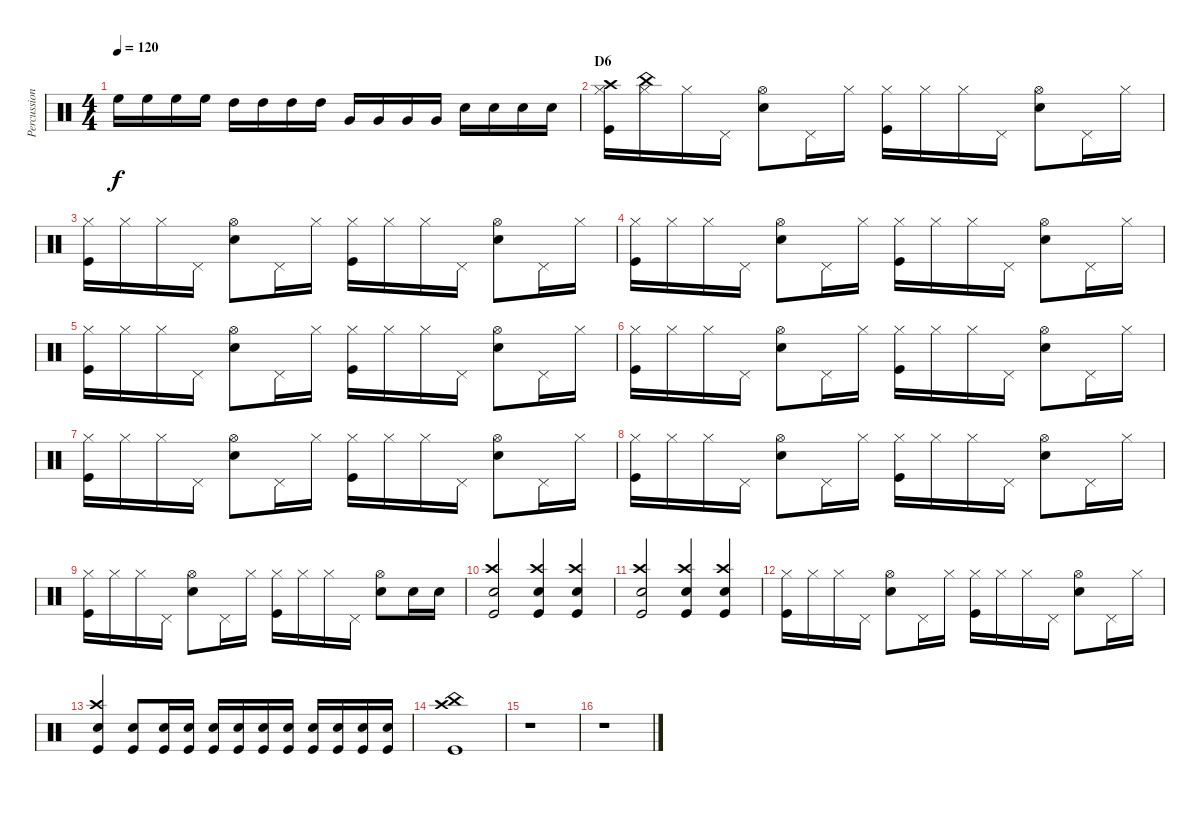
\track ("Percussions" "Percussion") {instrument percussion}
\staff {score}
\articulation defaults
\ts (4 4)
\tempo 120
\clef neutral
\ks c "High Floor Tom (hit)".16{dy f} "High Floor Tom (hit)".16 "High Floor Tom (hit)".16 "High Floor Tom (hit)".16 "High Tom (hit)".16 "High Tom (hit)".16 "High Tom (hit)".16 "High Tom (hit)".16 "Very Low Tom (hit)".16 "Very Low Tom (hit)".16 "Very Low Tom (hit)".16 "Very Low Tom (hit)".16 "Snare (hit) 2".16 "Snare (hit) 2".16 "Snare (hit) 2".16 "Snare (hit) 2".16
|
\section ("" "D6")
("Hi-Hat (closed)" "Crash high (hit)" "Kick (hit)").16 ("Hi-Hat (closed)" "China (hit)").16 "Hi-Hat (closed)".16 "Pedal Hi-Hat (hit)".16 ("Hi-Hat (open)" "Snare (hit) 2").8 "Pedal Hi-Hat (hit)".16 "Hi-Hat (closed)".16 ("Hi-Hat (closed)" "Kick (hit)").16 "Hi-Hat (closed)".16 "Hi-Hat (closed)".16 "Pedal Hi-Hat (hit)".16 ("Hi-Hat (open)" "Snare (hit) 2").8 "Pedal Hi-Hat (hit)".16 "Hi-Hat (closed)".16 |
("Hi-Hat (closed)" "Kick (hit)").16 "Hi-Hat (closed)".16 "Hi-Hat (closed)".16 "Pedal Hi-Hat (hit)".16 ("Hi-Hat (open)" "Snare (hit) 2").8 "Pedal Hi-Hat (hit)".16 "Hi-Hat (closed)".16 ("Hi-Hat (closed)" "Kick (hit)").16 "Hi-Hat (closed)".16 "Hi-Hat (closed)".16 "Pedal Hi-Hat (hit)".16 ("Hi-Hat (open)" "Snare (hit) 2").8 "Pedal Hi-Hat (hit)".16 "Hi-Hat (closed)".16 |
("Hi-Hat (closed)" "Kick (hit)").16 "Hi-Hat (closed)".16 "Hi-Hat (closed)".16 "Pedal Hi-Hat (hit)".16 ("Hi-Hat (open)" "Snare (hit) 2").8 "Pedal Hi-Hat (hit)".16 "Hi-Hat (closed)".16 ("Hi-Hat (closed)" "Kick (hit)").16 "Hi-Hat (closed)".16 "Hi-Hat (closed)".16 "Pedal Hi-Hat (hit)".16 ("Hi-Hat (open)" "Snare (hit) 2").8 "Pedal Hi-Hat (hit)".16 "Hi-Hat (closed)".16 |
("Hi-Hat (closed)" "Kick (hit)").16 "Hi-Hat (closed)".16 "Hi-Hat (closed)".16 "Pedal Hi-Hat (hit)".16 ("Hi-Hat (open)" "Snare (hit) 2").8 "Pedal Hi-Hat (hit)".16 "Hi-Hat (closed)".16 ("Hi-Hat (closed)" "Kick (hit)").16 "Hi-Hat (closed)".16 "Hi-Hat (closed)".16 "Pedal Hi-Hat (hit)".16 ("Hi-Hat (open)" "Snare (hit) 2").8 "Pedal Hi-Hat (hit)".16 "Hi-Hat (closed)".16 |
("Hi-Hat (closed)" "Kick (hit)").16 "Hi-Hat (closed)".16 "Hi-Hat (closed)".16 "Pedal Hi-Hat (hit)".16 ("Hi-Hat (open)" "Snare (hit) 2").8 "Pedal Hi-Hat (hit)".16 "Hi-Hat (closed)".16 ("Hi-Hat (closed)" "Kick (hit)").16 "Hi-Hat (closed)".16 "Hi-Hat (closed)".16 "Pedal Hi-Hat (hit)".16 ("Hi-Hat (open)" "Snare (hit) 2").8 "Pedal Hi-Hat (hit)".16 "Hi-Hat (closed)".16 |
("Hi-Hat (closed)" "Kick (hit)").16 "Hi-Hat (closed)".16 "Hi-Hat (closed)".16 "Pedal Hi-Hat (hit)".16 ("Hi-Hat (open)" "Snare (hit) 2").8 "Pedal Hi-Hat (hit)".16 "Hi-Hat (closed)".16 ("Hi-Hat (closed)" "Kick (hit)").16 "Hi-Hat (closed)".16 "Hi-Hat (closed)".16 "Pedal Hi-Hat (hit)".16 ("Hi-Hat (open)" "Snare (hit) 2").8 "Pedal Hi-Hat (hit)".16 "Hi-Hat (closed)".16 |
("Hi-Hat (closed)" "Kick (hit)").16 "Hi-Hat (closed)".16 "Hi-Hat (closed)".16 "Pedal Hi-Hat (hit)".16 ("Hi-Hat (open)" "Snare (hit) 2").8 "Pedal Hi-Hat (hit)".16 "Hi-Hat (closed)".16 ("Hi-Hat (closed)" "Kick (hit)").16 "Hi-Hat (closed)".16 "Hi-Hat (closed)".16 "Pedal Hi-Hat (hit)".16 ("Hi-Hat (open)" "Snare (hit) 2").8 "Pedal Hi-Hat (hit)".16 "Hi-Hat (closed)".16 |
("Hi-Hat (closed)" "Kick (hit)").16 "Hi-Hat (closed)".16 "Hi-Hat (closed)".16 "Pedal Hi-Hat (hit)".16 ("Hi-Hat (open)" "Snare (hit) 2").8 "Pedal Hi-Hat (hit)".16 "Hi-Hat (closed)".16 ("Hi-Hat (closed)" "Kick (hit)").16 "Hi-Hat (closed)".16 "Hi-Hat (closed)".16 "Pedal Hi-Hat (hit)".16 ("Hi-Hat (open)" "Snare (hit) 2").8 "Snare (hit) 2".16 "Snare (hit) 2".16 |
("Crash high (hit)" "Snare (hit) 2" "Kick (hit)").2 ("Crash high (hit)" "Snare (hit) 2" "Kick (hit)").4 ("Crash high (hit)" "Snare (hit) 2" "Kick (hit)").4 |
("Crash high (hit)" "Snare (hit) 2" "Kick (hit)").2 ("Crash high (hit)" "Snare (hit) 2" "Kick (hit)").4 ("Crash high (hit)" "Snare (hit) 2" "Kick (hit)").4 |
("Hi-Hat (closed)" "Kick (hit)").16 "Hi-Hat (closed)".16 "Hi-Hat (closed)".16 "Pedal Hi-Hat (hit)".16 ("Hi-Hat (open)" "Snare (hit) 2").8 "Pedal Hi-Hat (hit)".16 "Hi-Hat (closed)".16 ("Hi-Hat (closed)" "Kick (hit)").16 "Hi-Hat (closed)".16 "Hi-Hat (closed)".16 "Pedal Hi-Hat (hit)".16 ("Hi-Hat (open)" "Snare (hit) 2").8 "Pedal Hi-Hat (hit)".16 "Hi-Hat (closed)".16 |
("Crash high (hit)" "Snare (hit) 2" "Kick (hit)").4 ("Snare (hit) 2" "Kick (hit)").8 ("Snare (hit) 2" "Kick (hit)").16 ("Snare (hit) 2" "Kick (hit)").16 ("Snare (hit) 2" "Kick (hit)").16 ("Snare (hit) 2" "Kick (hit)").16 ("Snare (hit) 2" "Kick (hit)").16 ("Snare (hit) 2" "Kick (hit)").16 ("Snare (hit) 2" "Kick (hit)").16 ("Snare (hit) 2" "Kick (hit)").16 ("Snare (hit) 2" "Kick (hit)").16 ("Snare (hit) 2" "Kick (hit)").16 |
("Crash high (hit)" "China (hit)" "Kick (hit)").1 |
r.1 |
r.1
